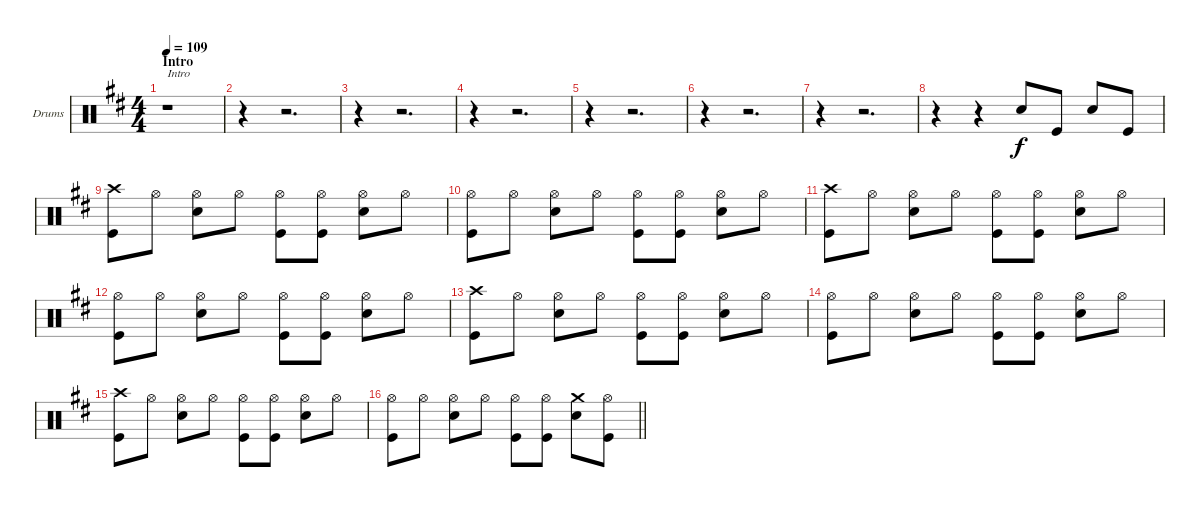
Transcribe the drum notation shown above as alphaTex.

\bracketExtendMode groupsimilarinstruments
\firstSystemTrackNameOrientation horizontal
\otherSystemsTrackNameOrientation horizontal
\track ("Drumkit" "Drums") {instrument percussion}
\staff {score}
\articulation defaults
\ts (4 4)
\beaming (8 2 2 2 2)
\section ("" "Intro")
\tempo 109
\clef neutral
\ks d
r.1{txt "Intro" dy f} |
r.4 r.2{d} |
r.4 r.2{d} |
r.4 r.2{d} |
r.4 r.2{d} |
r.4 r.2{d} |
r.4 r.2{d} |
r.4 r.4 "Snare (hit) 2".8 "Kick (hit)".8 "Snare (hit) 2".8 "Kick (hit)".8 |
("Kick (hit)" "Crash high (hit)").8 "Hi-Hat (open)".8 ("Snare (hit) 2" "Hi-Hat (open)").8 "Hi-Hat (open)".8 ("Kick (hit)" "Hi-Hat (open)").8 ("Kick (hit)" "Hi-Hat (open)").8 ("Snare (hit) 2" "Hi-Hat (open)").8 "Hi-Hat (open)".8 |
("Kick (hit)" "Hi-Hat (open)").8 "Hi-Hat (open)".8 ("Snare (hit) 2" "Hi-Hat (open)").8 "Hi-Hat (open)".8 ("Kick (hit)" "Hi-Hat (open)").8 ("Kick (hit)" "Hi-Hat (open)").8 ("Snare (hit) 2" "Hi-Hat (open)").8 "Hi-Hat (open)".8 |
("Kick (hit)" "Crash high (hit)").8 "Hi-Hat (open)".8 ("Snare (hit) 2" "Hi-Hat (open)").8 "Hi-Hat (open)".8 ("Kick (hit)" "Hi-Hat (open)").8 ("Kick (hit)" "Hi-Hat (open)").8 ("Snare (hit) 2" "Hi-Hat (open)").8 "Hi-Hat (open)".8 |
("Kick (hit)" "Hi-Hat (open)").8 "Hi-Hat (open)".8 ("Snare (hit) 2" "Hi-Hat (open)").8 "Hi-Hat (open)".8 ("Kick (hit)" "Hi-Hat (open)").8 ("Kick (hit)" "Hi-Hat (open)").8 ("Snare (hit) 2" "Hi-Hat (open)").8 "Hi-Hat (open)".8 |
("Kick (hit)" "Crash high (hit)").8 "Hi-Hat (open)".8 ("Snare (hit) 2" "Hi-Hat (open)").8 "Hi-Hat (open)".8 ("Kick (hit)" "Hi-Hat (open)").8 ("Kick (hit)" "Hi-Hat (open)").8 ("Snare (hit) 2" "Hi-Hat (open)").8 "Hi-Hat (open)".8 |
("Kick (hit)" "Hi-Hat (open)").8 "Hi-Hat (open)".8 ("Snare (hit) 2" "Hi-Hat (open)").8 "Hi-Hat (open)".8 ("Kick (hit)" "Hi-Hat (open)").8 ("Kick (hit)" "Hi-Hat (open)").8 ("Snare (hit) 2" "Hi-Hat (open)").8 "Hi-Hat (open)".8 |
("Kick (hit)" "Crash high (hit)").8 "Hi-Hat (open)".8 ("Snare (hit) 2" "Hi-Hat (open)").8 "Hi-Hat (open)".8 ("Kick (hit)" "Hi-Hat (open)").8 ("Kick (hit)" "Hi-Hat (open)").8 ("Snare (hit) 2" "Hi-Hat (open)").8 "Hi-Hat (open)".8 |
\barLineRight lightlight
("Kick (hit)" "Hi-Hat (open)").8 "Hi-Hat (open)".8 ("Snare (hit) 2" "Hi-Hat (open)").8 "Hi-Hat (open)".8 ("Kick (hit)" "Hi-Hat (open)").8 ("Kick (hit)" "Hi-Hat (open)").8 ("Snare (hit) 2" "Crash medium (hit)").8 ("Hi-Hat (open)" "Kick (hit)").8
